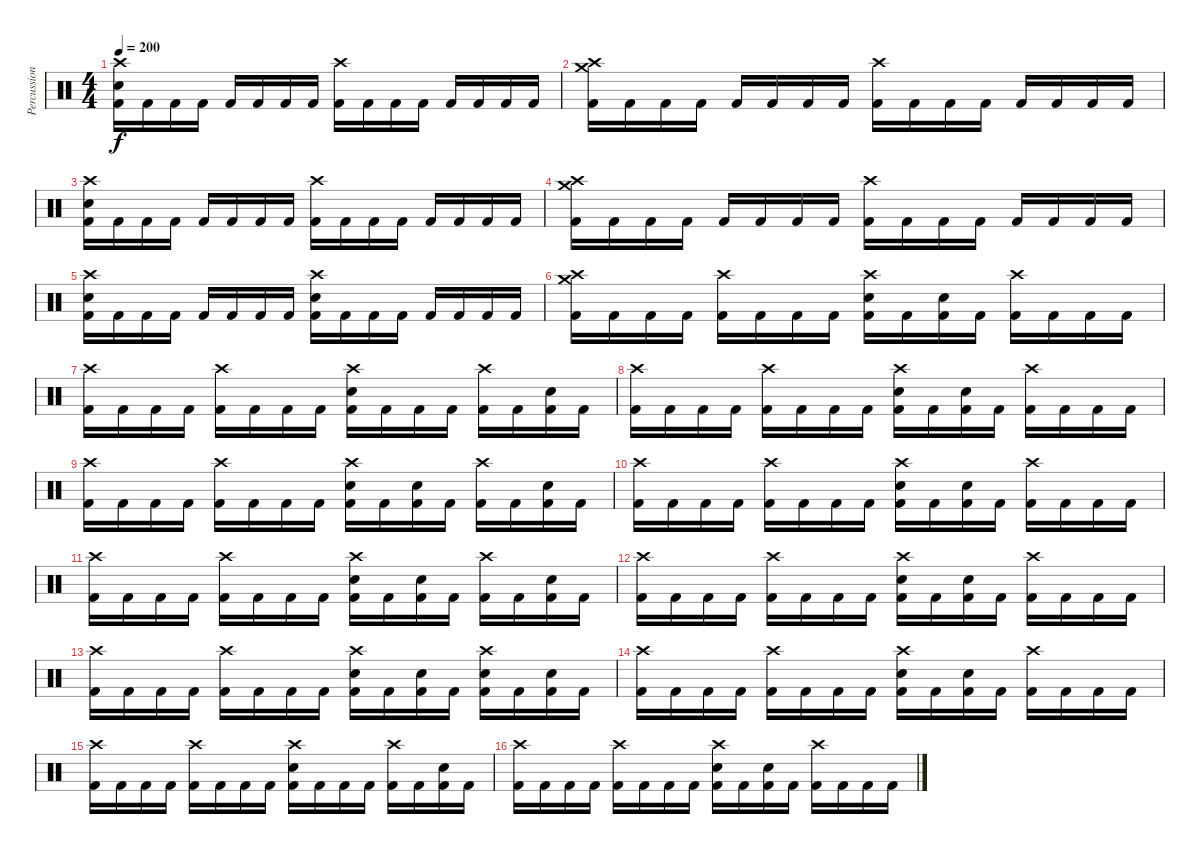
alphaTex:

\track ("Percussion" "Percussion") {instrument percussion}
\staff {score}
\articulation defaults
\ts (4 4)
\tempo 200
\clef neutral
\ks c
("Crash high (hit)" "Electric Snare (hit)" "Kick (hit) 2").16{dy f} "Kick (hit) 2".16 "Kick (hit) 2".16 "Kick (hit) 2".16 "Kick (hit) 2".16 "Kick (hit) 2".16 "Kick (hit) 2".16 "Kick (hit) 2".16 ("Crash high (hit)" "Kick (hit) 2").16 "Kick (hit) 2".16 "Kick (hit) 2".16 "Kick (hit) 2".16 "Kick (hit) 2".16 "Kick (hit) 2".16 "Kick (hit) 2".16 "Kick (hit) 2".16 |
("Crash medium (hit)" "Crash high (hit)" "Kick (hit) 2").16 "Kick (hit) 2".16 "Kick (hit) 2".16 "Kick (hit) 2".16 "Kick (hit) 2".16 "Kick (hit) 2".16 "Kick (hit) 2".16 "Kick (hit) 2".16 ("Crash high (hit)" "Kick (hit) 2").16 "Kick (hit) 2".16 "Kick (hit) 2".16 "Kick (hit) 2".16 "Kick (hit) 2".16 "Kick (hit) 2".16 "Kick (hit) 2".16 "Kick (hit) 2".16 |
("Crash high (hit)" "Electric Snare (hit)" "Kick (hit) 2").16 "Kick (hit) 2".16 "Kick (hit) 2".16 "Kick (hit) 2".16 "Kick (hit) 2".16 "Kick (hit) 2".16 "Kick (hit) 2".16 "Kick (hit) 2".16 ("Crash high (hit)" "Kick (hit) 2").16 "Kick (hit) 2".16 "Kick (hit) 2".16 "Kick (hit) 2".16 "Kick (hit) 2".16 "Kick (hit) 2".16 "Kick (hit) 2".16 "Kick (hit) 2".16 |
("Crash medium (hit)" "Crash high (hit)" "Kick (hit) 2").16 "Kick (hit) 2".16 "Kick (hit) 2".16 "Kick (hit) 2".16 "Kick (hit) 2".16 "Kick (hit) 2".16 "Kick (hit) 2".16 "Kick (hit) 2".16 ("Crash high (hit)" "Kick (hit) 2").16 "Kick (hit) 2".16 "Kick (hit) 2".16 "Kick (hit) 2".16 "Kick (hit) 2".16 "Kick (hit) 2".16 "Kick (hit) 2".16 "Kick (hit) 2".16 |
("Crash high (hit)" "Electric Snare (hit)" "Kick (hit) 2").16 "Kick (hit) 2".16 "Kick (hit) 2".16 "Kick (hit) 2".16 "Kick (hit) 2".16 "Kick (hit) 2".16 "Kick (hit) 2".16 "Kick (hit) 2".16 ("Crash high (hit)" "Electric Snare (hit)" "Kick (hit) 2").16 "Kick (hit) 2".16 "Kick (hit) 2".16 "Kick (hit) 2".16 "Kick (hit) 2".16 "Kick (hit) 2".16 "Kick (hit) 2".16 "Kick (hit) 2".16 |
("Crash medium (hit)" "Crash high (hit)" "Kick (hit) 2").16 "Kick (hit) 2".16 "Kick (hit) 2".16 "Kick (hit) 2".16 ("Crash high (hit)" "Kick (hit) 2").16 "Kick (hit) 2".16 "Kick (hit) 2".16 "Kick (hit) 2".16 ("Crash high (hit)" "Electric Snare (hit)" "Kick (hit) 2").16 "Kick (hit) 2".16 ("Electric Snare (hit)" "Kick (hit) 2").16 "Kick (hit) 2".16 ("Crash high (hit)" "Kick (hit) 2").16 "Kick (hit) 2".16 "Kick (hit) 2".16 "Kick (hit) 2".16 |
("Crash high (hit)" "Kick (hit) 2").16 "Kick (hit) 2".16 "Kick (hit) 2".16 "Kick (hit) 2".16 ("Crash high (hit)" "Kick (hit) 2").16 "Kick (hit) 2".16 "Kick (hit) 2".16 "Kick (hit) 2".16 ("Crash high (hit)" "Electric Snare (hit)" "Kick (hit) 2").16 "Kick (hit) 2".16 "Kick (hit) 2".16 "Kick (hit) 2".16 ("Crash high (hit)" "Kick (hit) 2").16 "Kick (hit) 2".16 ("Electric Snare (hit)" "Kick (hit) 2").16 "Kick (hit) 2".16 |
("Crash high (hit)" "Kick (hit) 2").16 "Kick (hit) 2".16 "Kick (hit) 2".16 "Kick (hit) 2".16 ("Crash high (hit)" "Kick (hit) 2").16 "Kick (hit) 2".16 "Kick (hit) 2".16 "Kick (hit) 2".16 ("Crash high (hit)" "Electric Snare (hit)" "Kick (hit) 2").16 "Kick (hit) 2".16 ("Electric Snare (hit)" "Kick (hit) 2").16 "Kick (hit) 2".16 ("Crash high (hit)" "Kick (hit) 2").16 "Kick (hit) 2".16 "Kick (hit) 2".16 "Kick (hit) 2".16 |
("Crash high (hit)" "Kick (hit) 2").16 "Kick (hit) 2".16 "Kick (hit) 2".16 "Kick (hit) 2".16 ("Crash high (hit)" "Kick (hit) 2").16 "Kick (hit) 2".16 "Kick (hit) 2".16 "Kick (hit) 2".16 ("Crash high (hit)" "Electric Snare (hit)" "Kick (hit) 2").16 "Kick (hit) 2".16 ("Electric Snare (hit)" "Kick (hit) 2").16 "Kick (hit) 2".16 ("Crash high (hit)" "Kick (hit) 2").16 "Kick (hit) 2".16 ("Electric Snare (hit)" "Kick (hit) 2").16 "Kick (hit) 2".16 |
("Crash high (hit)" "Kick (hit) 2").16 "Kick (hit) 2".16 "Kick (hit) 2".16 "Kick (hit) 2".16 ("Crash high (hit)" "Kick (hit) 2").16 "Kick (hit) 2".16 "Kick (hit) 2".16 "Kick (hit) 2".16 ("Crash high (hit)" "Electric Snare (hit)" "Kick (hit) 2").16 "Kick (hit) 2".16 ("Electric Snare (hit)" "Kick (hit) 2").16 "Kick (hit) 2".16 ("Crash high (hit)" "Kick (hit) 2").16 "Kick (hit) 2".16 "Kick (hit) 2".16 "Kick (hit) 2".16 |
("Crash high (hit)" "Kick (hit) 2").16 "Kick (hit) 2".16 "Kick (hit) 2".16 "Kick (hit) 2".16 ("Crash high (hit)" "Kick (hit) 2").16 "Kick (hit) 2".16 "Kick (hit) 2".16 "Kick (hit) 2".16 ("Crash high (hit)" "Electric Snare (hit)" "Kick (hit) 2").16 "Kick (hit) 2".16 ("Electric Snare (hit)" "Kick (hit) 2").16 "Kick (hit) 2".16 ("Crash high (hit)" "Kick (hit) 2").16 "Kick (hit) 2".16 ("Electric Snare (hit)" "Kick (hit) 2").16 "Kick (hit) 2".16 |
("Crash high (hit)" "Kick (hit) 2").16 "Kick (hit) 2".16 "Kick (hit) 2".16 "Kick (hit) 2".16 ("Crash high (hit)" "Kick (hit) 2").16 "Kick (hit) 2".16 "Kick (hit) 2".16 "Kick (hit) 2".16 ("Crash high (hit)" "Electric Snare (hit)" "Kick (hit) 2").16 "Kick (hit) 2".16 ("Electric Snare (hit)" "Kick (hit) 2").16 "Kick (hit) 2".16 ("Crash high (hit)" "Kick (hit) 2").16 "Kick (hit) 2".16 "Kick (hit) 2".16 "Kick (hit) 2".16 |
("Crash high (hit)" "Kick (hit) 2").16 "Kick (hit) 2".16 "Kick (hit) 2".16 "Kick (hit) 2".16 ("Crash high (hit)" "Kick (hit) 2").16 "Kick (hit) 2".16 "Kick (hit) 2".16 "Kick (hit) 2".16 ("Crash high (hit)" "Electric Snare (hit)" "Kick (hit) 2").16 "Kick (hit) 2".16 ("Electric Snare (hit)" "Kick (hit) 2").16 "Kick (hit) 2".16 ("Crash high (hit)" "Electric Snare (hit)" "Kick (hit) 2").16 "Kick (hit) 2".16 ("Electric Snare (hit)" "Kick (hit) 2").16 "Kick (hit) 2".16 |
("Crash high (hit)" "Kick (hit) 2").16 "Kick (hit) 2".16 "Kick (hit) 2".16 "Kick (hit) 2".16 ("Crash high (hit)" "Kick (hit) 2").16 "Kick (hit) 2".16 "Kick (hit) 2".16 "Kick (hit) 2".16 ("Crash high (hit)" "Electric Snare (hit)" "Kick (hit) 2").16 "Kick (hit) 2".16 ("Electric Snare (hit)" "Kick (hit) 2").16 "Kick (hit) 2".16 ("Crash high (hit)" "Kick (hit) 2").16 "Kick (hit) 2".16 "Kick (hit) 2".16 "Kick (hit) 2".16 |
("Crash high (hit)" "Kick (hit) 2").16 "Kick (hit) 2".16 "Kick (hit) 2".16 "Kick (hit) 2".16 ("Crash high (hit)" "Kick (hit) 2").16 "Kick (hit) 2".16 "Kick (hit) 2".16 "Kick (hit) 2".16 ("Crash high (hit)" "Electric Snare (hit)" "Kick (hit) 2").16 "Kick (hit) 2".16 "Kick (hit) 2".16 "Kick (hit) 2".16 ("Crash high (hit)" "Kick (hit) 2").16 "Kick (hit) 2".16 ("Electric Snare (hit)" "Kick (hit) 2").16 "Kick (hit) 2".16 |
("Crash high (hit)" "Kick (hit) 2").16 "Kick (hit) 2".16 "Kick (hit) 2".16 "Kick (hit) 2".16 ("Crash high (hit)" "Kick (hit) 2").16 "Kick (hit) 2".16 "Kick (hit) 2".16 "Kick (hit) 2".16 ("Crash high (hit)" "Electric Snare (hit)" "Kick (hit) 2").16 "Kick (hit) 2".16 ("Electric Snare (hit)" "Kick (hit) 2").16 "Kick (hit) 2".16 ("Crash high (hit)" "Kick (hit) 2").16 "Kick (hit) 2".16 "Kick (hit) 2".16 "Kick (hit) 2".16
